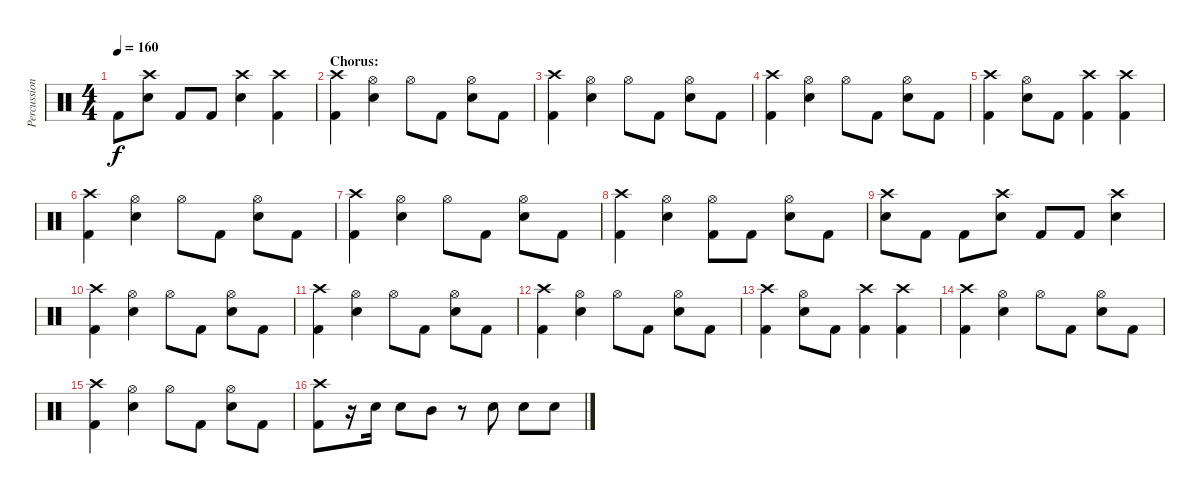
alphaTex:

\track ("Percussion" "Percussion") {instrument percussion}
\staff {score}
\articulation defaults
\ts (4 4)
\tempo 160
\clef neutral
\ks c "Kick (hit) 2".8{dy f}
("Crash high (hit)" "Snare (hit) 2").8 "Kick (hit) 2".8 "Kick (hit) 2".8 ("Crash high (hit)" "Snare (hit) 2").4 ("Crash high (hit)" "Kick (hit) 2").4 |
\section ("" "Chorus:")
("Crash high (hit)" "Kick (hit) 2").4 ("Hi-Hat (open)" "Snare (hit) 2").4 "Hi-Hat (open)".8 "Kick (hit) 2".8 ("Hi-Hat (open)" "Snare (hit) 2").8 "Kick (hit) 2".8 |
("Crash high (hit)" "Kick (hit) 2").4 ("Hi-Hat (open)" "Snare (hit) 2").4 "Hi-Hat (open)".8 "Kick (hit) 2".8 ("Hi-Hat (open)" "Snare (hit) 2").8 "Kick (hit) 2".8 |
("Crash high (hit)" "Kick (hit) 2").4 ("Hi-Hat (open)" "Snare (hit) 2").4 "Hi-Hat (open)".8 "Kick (hit) 2".8 ("Hi-Hat (open)" "Snare (hit) 2").8 "Kick (hit) 2".8 |
("Crash high (hit)" "Kick (hit) 2").4 ("Hi-Hat (open)" "Snare (hit) 2").8 "Kick (hit) 2".8 ("Crash high (hit)" "Kick (hit) 2").4 ("Crash high (hit)" "Kick (hit) 2").4 |
("Crash high (hit)" "Kick (hit) 2").4 ("Hi-Hat (open)" "Snare (hit) 2").4 "Hi-Hat (open)".8 "Kick (hit) 2".8 ("Hi-Hat (open)" "Snare (hit) 2").8 "Kick (hit) 2".8 |
("Crash high (hit)" "Kick (hit) 2").4 ("Hi-Hat (open)" "Snare (hit) 2").4 "Hi-Hat (open)".8 "Kick (hit) 2".8 ("Hi-Hat (open)" "Snare (hit) 2").8 "Kick (hit) 2".8 |
("Crash high (hit)" "Kick (hit) 2").4 ("Hi-Hat (open)" "Snare (hit) 2").4 ("Hi-Hat (open)" "Kick (hit) 2").8 "Kick (hit) 2".8 ("Hi-Hat (open)" "Snare (hit) 2").8 "Kick (hit) 2".8 |
("Crash high (hit)" "Snare (hit) 2").8 "Kick (hit) 2".8 "Kick (hit) 2".8 ("Crash high (hit)" "Snare (hit) 2").8 "Kick (hit) 2".8 "Kick (hit) 2".8 ("Crash high (hit)" "Snare (hit) 2").4 |
("Crash high (hit)" "Kick (hit) 2").4 ("Hi-Hat (open)" "Snare (hit) 2").4 "Hi-Hat (open)".8 "Kick (hit) 2".8 ("Hi-Hat (open)" "Snare (hit) 2").8 "Kick (hit) 2".8 |
("Crash high (hit)" "Kick (hit) 2").4 ("Hi-Hat (open)" "Snare (hit) 2").4 "Hi-Hat (open)".8 "Kick (hit) 2".8 ("Hi-Hat (open)" "Snare (hit) 2").8 "Kick (hit) 2".8 |
("Crash high (hit)" "Kick (hit) 2").4 ("Hi-Hat (open)" "Snare (hit) 2").4 "Hi-Hat (open)".8 "Kick (hit) 2".8 ("Hi-Hat (open)" "Snare (hit) 2").8 "Kick (hit) 2".8 |
("Crash high (hit)" "Kick (hit) 2").4 ("Hi-Hat (open)" "Snare (hit) 2").8 "Kick (hit) 2".8 ("Crash high (hit)" "Kick (hit) 2").4 ("Crash high (hit)" "Kick (hit) 2").4 |
("Crash high (hit)" "Kick (hit) 2").4 ("Hi-Hat (open)" "Snare (hit) 2").4 "Hi-Hat (open)".8 "Kick (hit) 2".8 ("Hi-Hat (open)" "Snare (hit) 2").8 "Kick (hit) 2".8 |
("Crash high (hit)" "Kick (hit) 2").4 ("Hi-Hat (open)" "Snare (hit) 2").4 "Hi-Hat (open)".8 "Kick (hit) 2".8 ("Hi-Hat (open)" "Snare (hit) 2").8 "Kick (hit) 2".8 |
("Crash high (hit)" "Kick (hit) 2").8 r.16 "Snare (hit) 2".16 "Snare (hit) 2".8 "Mid Tom (hit)".8 r.8 "Snare (hit) 2".8 "Snare (hit) 2".8 "Snare (hit) 2".8
